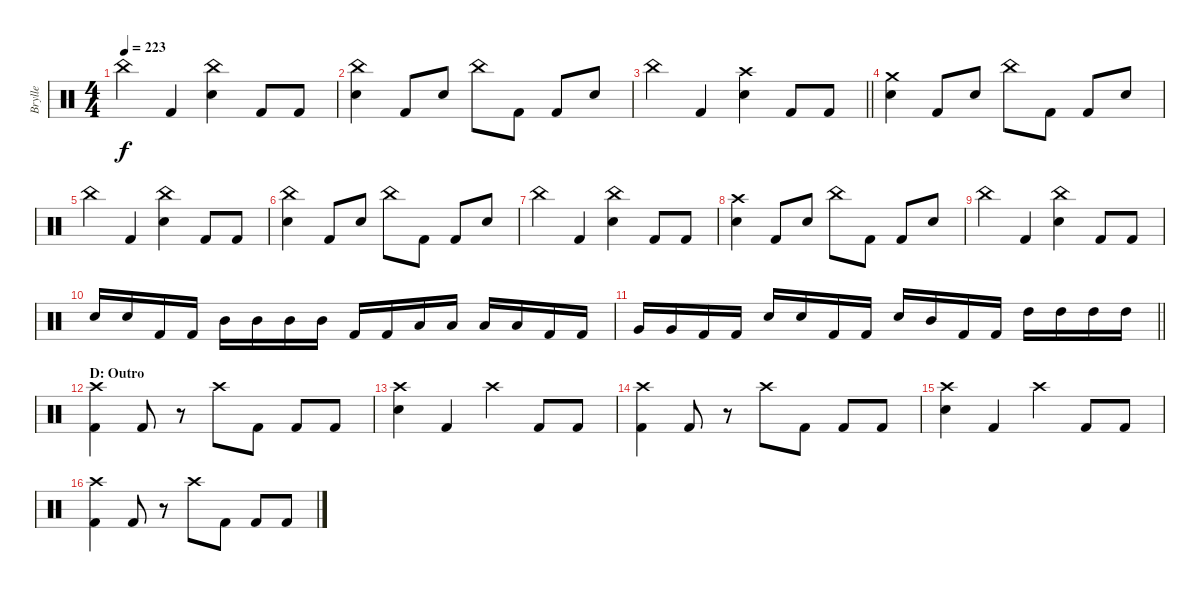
\track ("Brylle" "Brylle") {instrument percussion}
\staff {score}
\articulation defaults
\ts (4 4)
\tempo 223
\clef neutral
\ks c "China (hit)".4{dy f} "Kick (hit) 2".4
("China (hit)" "Electric Snare (hit)").4 "Kick (hit) 2".8 "Kick (hit) 2".8 |
("China (hit)" "Electric Snare (hit)").4 "Kick (hit) 2".8 "Electric Snare (hit)".8 "China (hit)".8 "Kick (hit) 2".8 "Kick (hit) 2".8 "Electric Snare (hit)".8 |
\barLineRight lightlight "China (hit)".4 "Kick (hit) 2".4
("Crash high (hit)" "Electric Snare (hit)").4 "Kick (hit) 2".8 "Kick (hit) 2".8 |
("Crash medium (hit)" "Electric Snare (hit)").4 "Kick (hit) 2".8 "Electric Snare (hit)".8 "China (hit)".8 "Kick (hit) 2".8 "Kick (hit) 2".8 "Electric Snare (hit)".8 |
"China (hit)".4 "Kick (hit) 2".4 ("China (hit)" "Electric Snare (hit)").4 "Kick (hit) 2".8 "Kick (hit) 2".8 |
("China (hit)" "Electric Snare (hit)").4 "Kick (hit) 2".8 "Electric Snare (hit)".8 "China (hit)".8 "Kick (hit) 2".8 "Kick (hit) 2".8 "Electric Snare (hit)".8 |
"China (hit)".4 "Kick (hit) 2".4 ("China (hit)" "Electric Snare (hit)").4 "Kick (hit) 2".8 "Kick (hit) 2".8 |
("Crash high (hit)" "Electric Snare (hit)").4 "Kick (hit) 2".8 "Electric Snare (hit)".8 "China (hit)".8 "Kick (hit) 2".8 "Kick (hit) 2".8 "Electric Snare (hit)".8 |
"China (hit)".4 "Kick (hit) 2".4 ("China (hit)" "Electric Snare (hit)").4 "Kick (hit) 2".8 "Kick (hit) 2".8 |
"Electric Snare (hit)".16 "Electric Snare (hit)".16 "Kick (hit) 2".16 "Kick (hit) 2".16 "Mid Tom (hit)".16 "Mid Tom (hit)".16 "Mid Tom (hit)".16 "Mid Tom (hit)".16 "Kick (hit) 2".16 "Kick (hit) 2".16 "Low Tom (hit)".16 "Low Tom (hit)".16 "Low Tom (hit)".16 "Low Tom (hit)".16 "Kick (hit) 2".16 "Kick (hit) 2".16 |
\barLineRight lightlight "Very Low Tom (hit)".16 "Very Low Tom (hit)".16 "Kick (hit) 2".16 "Kick (hit) 2".16 "Electric Snare (hit)".16 "Electric Snare (hit)".16 "Kick (hit) 2".16 "Kick (hit) 2".16 "Electric Snare (hit)".16 "Mid Tom (hit)".16 "Kick (hit) 2".16 "Kick (hit) 2".16 "High Tom (hit)".16 "High Tom (hit)".16 "High Tom (hit)".16 "High Tom (hit)".16
|
\section ("" "D: Outro")
("Crash high (hit)" "Kick (hit) 2").4 "Kick (hit) 2".8 r.8 "Crash high (hit)".8 "Kick (hit) 2".8 "Kick (hit) 2".8 "Kick (hit) 2".8 |
("Crash high (hit)" "Electric Snare (hit)").4 "Kick (hit) 2".4 "Crash high (hit)".4 "Kick (hit) 2".8 "Kick (hit) 2".8 |
("Crash high (hit)" "Kick (hit) 2").4 "Kick (hit) 2".8 r.8 "Crash high (hit)".8 "Kick (hit) 2".8 "Kick (hit) 2".8 "Kick (hit) 2".8 |
("Crash high (hit)" "Electric Snare (hit)").4 "Kick (hit) 2".4 "Crash high (hit)".4 "Kick (hit) 2".8 "Kick (hit) 2".8 |
("Crash high (hit)" "Kick (hit) 2").4 "Kick (hit) 2".8 r.8 "Crash high (hit)".8 "Kick (hit) 2".8 "Kick (hit) 2".8 "Kick (hit) 2".8
